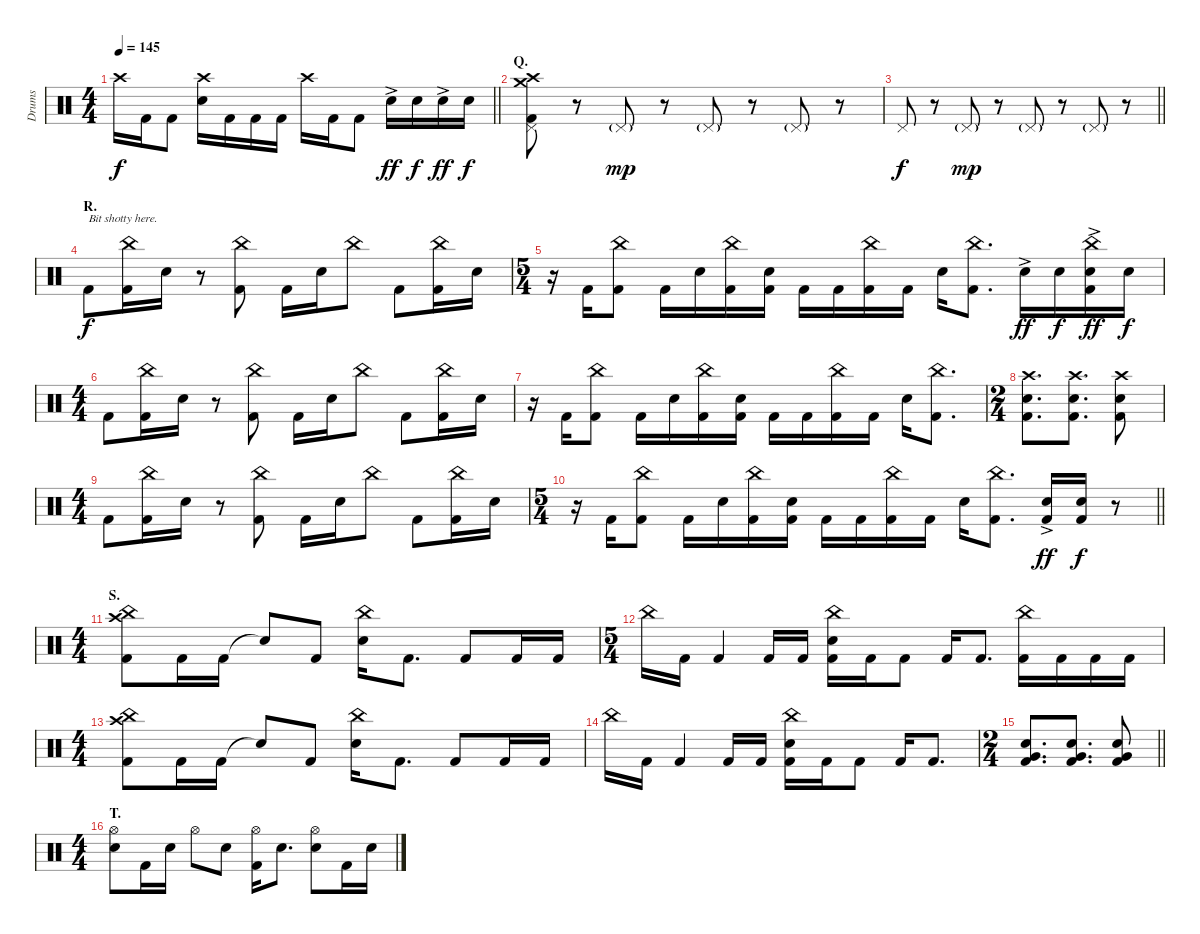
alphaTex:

\track ("Drums" "Drums") {instrument percussion}
\staff {score}
\articulation defaults
\ts (4 4)
\tempo 145
\clef neutral
\barLineRight lightlight
\ks c "Crash high (hit)".16{dy f} "Kick (hit) 2".16 "Kick (hit) 2".8
("Crash high (hit)" "Electric Snare (hit)").16 "Kick (hit) 2".16 "Kick (hit) 2".16 "Kick (hit) 2".16 "Crash high (hit)".16 "Kick (hit) 2".16 "Kick (hit) 2".8 "Electric Snare (hit)"{ac}.16{dy ff} "Electric Snare (hit)".16{dy f} "Electric Snare (hit)"{ac}.16{dy ff} "Electric Snare (hit)".16{dy f} |
\section ("" "Q.")
("Crash medium (hit)" "Crash high (hit)" "Pedal Hi-Hat (hit)" "Kick (hit) 2").8 r.8 "Pedal Hi-Hat (hit)"{g}.8{dy mp} r.8 "Pedal Hi-Hat (hit)"{g}.8 r.8 "Pedal Hi-Hat (hit)"{g}.8 r.8 |
\barLineRight lightlight "Pedal Hi-Hat (hit)".8{dy f}
r.8 "Pedal Hi-Hat (hit)"{g}.8{dy mp} r.8 "Pedal Hi-Hat (hit)"{g}.8 r.8 "Pedal Hi-Hat (hit)"{g}.8 r.8 |
\section ("" "R.")
"Kick (hit) 2".8{txt "Bit shotty here." dy f} ("China (hit)" "Kick (hit) 2").16 "Electric Snare (hit)".16 r.8 ("China (hit)" "Kick (hit) 2").8 "Kick (hit) 2".16 "Electric Snare (hit)".16 "China (hit)".8 "Kick (hit) 2".8 ("China (hit)" "Kick (hit) 2").16 "Electric Snare (hit)".16 |
\ts (5 4)
r.16 "Kick (hit) 2".16 ("China (hit)" "Kick (hit) 2").8 "Kick (hit) 2".16 "Electric Snare (hit)".16 ("China (hit)" "Kick (hit) 2").16 ("Electric Snare (hit)" "Kick (hit) 2").16 "Kick (hit) 2".16 "Kick (hit) 2".16 ("China (hit)" "Kick (hit) 2").16 "Kick (hit) 2".16 "Electric Snare (hit)".16 ("China (hit)" "Kick (hit) 2").8{d} "Electric Snare (hit)"{ac}.16{dy ff} "Electric Snare (hit)".16{dy f} ("China (hit)" "Electric Snare (hit)"{ac} "Kick (hit) 2").16{dy ff} "Electric Snare (hit)".16{dy f} |
\ts (4 4)
"Kick (hit) 2".8 ("China (hit)" "Kick (hit) 2").16 "Electric Snare (hit)".16 r.8 ("China (hit)" "Kick (hit) 2").8 "Kick (hit) 2".16 "Electric Snare (hit)".16 "China (hit)".8 "Kick (hit) 2".8 ("China (hit)" "Kick (hit) 2").16 "Electric Snare (hit)".16 |
r.16 "Kick (hit) 2".16 ("China (hit)" "Kick (hit) 2").8 "Kick (hit) 2".16 "Electric Snare (hit)".16 ("China (hit)" "Kick (hit) 2").16 ("Electric Snare (hit)" "Kick (hit) 2").16 "Kick (hit) 2".16 "Kick (hit) 2".16 ("China (hit)" "Kick (hit) 2").16 "Kick (hit) 2".16 "Electric Snare (hit)".16 ("China (hit)" "Kick (hit) 2").8{d} |
\ts (2 4)
("Crash high (hit)" "Electric Snare (hit)" "Kick (hit) 2").8{d} ("Crash high (hit)" "Electric Snare (hit)" "Kick (hit) 2").8{d} ("Crash high (hit)" "Electric Snare (hit)" "Kick (hit) 2").8 |
\ts (4 4)
"Kick (hit) 2".8 ("China (hit)" "Kick (hit) 2").16 "Electric Snare (hit)".16 r.8 ("China (hit)" "Kick (hit) 2").8 "Kick (hit) 2".16 "Electric Snare (hit)".16 "China (hit)".8 "Kick (hit) 2".8 ("China (hit)" "Kick (hit) 2").16 "Electric Snare (hit)".16 |
\ts (5 4)
\barLineRight lightlight
r.16 "Kick (hit) 2".16 ("China (hit)" "Kick (hit) 2").8 "Kick (hit) 2".16 "Electric Snare (hit)".16 ("China (hit)" "Kick (hit) 2").16 ("Electric Snare (hit)" "Kick (hit) 2").16 "Kick (hit) 2".16 "Kick (hit) 2".16 ("China (hit)" "Kick (hit) 2").16 "Kick (hit) 2".16 "Electric Snare (hit)".16 ("China (hit)" "Kick (hit) 2").8{d} ("Electric Snare (hit)"{ac} "Kick (hit) 2").16{dy ff} ("Electric Snare (hit)" "Kick (hit) 2").16{dy f} r.8 |
\ts (4 4)
\section ("" "S.")
("China (hit)" "Crash high (hit)" "Kick (hit) 2").8 "Kick (hit) 2".16 "Kick (hit) 2".16 "Snare (hit)"{t}.8 "Kick (hit) 2".8 ("China (hit)" "Electric Snare (hit)").16 "Kick (hit) 2".8{d} "Kick (hit) 2".8 "Kick (hit) 2".16 "Kick (hit) 2".16 |
\ts (5 4)
"China (hit)".16 "Kick (hit) 2".16 "Kick (hit) 2".4 "Kick (hit) 2".16 "Kick (hit) 2".16 ("China (hit)" "Electric Snare (hit)" "Kick (hit) 2").16 "Kick (hit) 2".16 "Kick (hit) 2".8 "Kick (hit) 2".16 "Kick (hit) 2".8{d} ("China (hit)" "Kick (hit) 2").16 "Kick (hit) 2".16 "Kick (hit) 2".16 "Kick (hit) 2".16 |
\ts (4 4)
("China (hit)" "Crash high (hit)" "Kick (hit) 2").8 "Kick (hit) 2".16 "Kick (hit) 2".16 "Snare (hit)"{t}.8 "Kick (hit) 2".8 ("China (hit)" "Electric Snare (hit)").16 "Kick (hit) 2".8{d} "Kick (hit) 2".8 "Kick (hit) 2".16 "Kick (hit) 2".16 |
"China (hit)".16 "Kick (hit) 2".16 "Kick (hit) 2".4 "Kick (hit) 2".16 "Kick (hit) 2".16 ("China (hit)" "Electric Snare (hit)" "Kick (hit) 2").16 "Kick (hit) 2".16 "Kick (hit) 2".8 "Kick (hit) 2".16 "Kick (hit) 2".8{d} |
\ts (2 4)
\barLineRight lightlight
("Electric Snare (hit)" "Very Low Tom (hit)" "Kick (hit) 2").8{d} ("Electric Snare (hit)" "Very Low Tom (hit)" "Kick (hit) 2").8{d} ("Electric Snare (hit)" "Very Low Tom (hit)" "Kick (hit) 2").8 |
\ts (4 4)
\section ("" "T.")
("Hi-Hat (open)" "Electric Snare (hit)").8 "Kick (hit) 2".16 "Electric Snare (hit)".16 "Hi-Hat (open)".8 "Electric Snare (hit)".8 ("Hi-Hat (open)" "Kick (hit) 2").16 "Electric Snare (hit)".8{d} ("Hi-Hat (open)" "Electric Snare (hit)").8 "Kick (hit) 2".16 "Electric Snare (hit)".16
